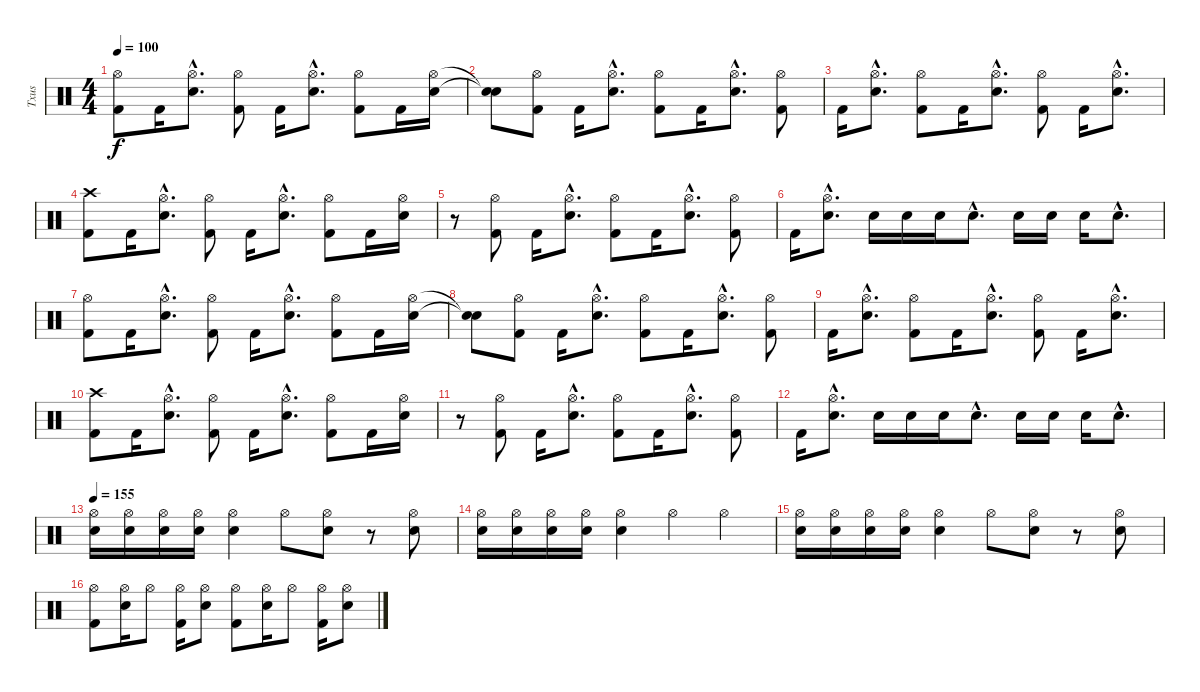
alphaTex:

\track ("Txus" "Txus") {instrument percussion}
\staff {score}
\articulation defaults
\ts (4 4)
\tempo 100
\clef neutral
\ks c
("Kick (hit) 2" "Hi-Hat (open)").8{dy f} "Kick (hit) 2".16 ("Snare (hit) 2"{hac} "Hi-Hat (open)"{hac}).8{d} ("Kick (hit) 2" "Hi-Hat (open)").8 "Kick (hit) 2".16 ("Snare (hit) 2"{hac} "Hi-Hat (open)"{hac}).8{d} ("Kick (hit) 2" "Hi-Hat (open)").8 "Kick (hit) 2".16 ("Snare (hit) 2" "Hi-Hat (open)").16 |
("Snare (hit)"{t} "Snare (hit)"{t}).8 ("Kick (hit) 2" "Hi-Hat (open)").8 "Kick (hit) 2".16 ("Snare (hit) 2"{hac} "Hi-Hat (open)"{hac}).8{d} ("Kick (hit) 2" "Hi-Hat (open)").8 "Kick (hit) 2".16 ("Snare (hit) 2"{hac} "Hi-Hat (open)"{hac}).8{d} ("Kick (hit) 2" "Hi-Hat (open)").8 |
"Kick (hit) 2".16 ("Snare (hit) 2"{hac} "Hi-Hat (open)"{hac}).8{d} ("Kick (hit) 2" "Hi-Hat (open)").8 "Kick (hit) 2".16 ("Snare (hit) 2"{hac} "Hi-Hat (open)"{hac}).8{d} ("Kick (hit) 2" "Hi-Hat (open)").8 "Kick (hit) 2".16 ("Snare (hit) 2"{hac} "Hi-Hat (open)"{hac}).8{d} |
("Kick (hit) 2" "Crash high (hit)").8 "Kick (hit) 2".16 ("Snare (hit) 2"{hac} "Hi-Hat (open)"{hac}).8{d} ("Kick (hit) 2" "Hi-Hat (open)").8 "Kick (hit) 2".16 ("Snare (hit) 2"{hac} "Hi-Hat (open)"{hac}).8{d} ("Kick (hit) 2" "Hi-Hat (open)").8 "Kick (hit) 2".16 ("Snare (hit) 2" "Hi-Hat (open)").16 |
r.8 ("Kick (hit) 2" "Hi-Hat (open)").8 "Kick (hit) 2".16 ("Snare (hit) 2"{hac} "Hi-Hat (open)"{hac}).8{d} ("Kick (hit) 2" "Hi-Hat (open)").8 "Kick (hit) 2".16 ("Snare (hit) 2"{hac} "Hi-Hat (open)"{hac}).8{d} ("Kick (hit) 2" "Hi-Hat (open)").8 |
"Kick (hit) 2".16 ("Snare (hit) 2"{hac} "Hi-Hat (open)"{hac}).8{d} "Snare (hit) 2".16 "Snare (hit) 2".16 "Snare (hit) 2".16 "Snare (hit) 2"{hac}.8{d} "Snare (hit) 2".16 "Snare (hit) 2".16 "Snare (hit) 2".16 "Snare (hit) 2"{hac}.8{d} |
("Kick (hit) 2" "Hi-Hat (open)").8 "Kick (hit) 2".16 ("Snare (hit) 2"{hac} "Hi-Hat (open)"{hac}).8{d} ("Kick (hit) 2" "Hi-Hat (open)").8 "Kick (hit) 2".16 ("Snare (hit) 2"{hac} "Hi-Hat (open)"{hac}).8{d} ("Kick (hit) 2" "Hi-Hat (open)").8 "Kick (hit) 2".16 ("Snare (hit) 2" "Hi-Hat (open)").16 |
("Snare (hit)"{t} "Snare (hit)"{t}).8 ("Kick (hit) 2" "Hi-Hat (open)").8 "Kick (hit) 2".16 ("Snare (hit) 2"{hac} "Hi-Hat (open)"{hac}).8{d} ("Kick (hit) 2" "Hi-Hat (open)").8 "Kick (hit) 2".16 ("Snare (hit) 2"{hac} "Hi-Hat (open)"{hac}).8{d} ("Kick (hit) 2" "Hi-Hat (open)").8 |
"Kick (hit) 2".16 ("Snare (hit) 2"{hac} "Hi-Hat (open)"{hac}).8{d} ("Kick (hit) 2" "Hi-Hat (open)").8 "Kick (hit) 2".16 ("Snare (hit) 2"{hac} "Hi-Hat (open)"{hac}).8{d} ("Kick (hit) 2" "Hi-Hat (open)").8 "Kick (hit) 2".16 ("Snare (hit) 2"{hac} "Hi-Hat (open)"{hac}).8{d} |
("Kick (hit) 2" "Crash high (hit)").8 "Kick (hit) 2".16 ("Snare (hit) 2"{hac} "Hi-Hat (open)"{hac}).8{d} ("Kick (hit) 2" "Hi-Hat (open)").8 "Kick (hit) 2".16 ("Snare (hit) 2"{hac} "Hi-Hat (open)"{hac}).8{d} ("Kick (hit) 2" "Hi-Hat (open)").8 "Kick (hit) 2".16 ("Snare (hit) 2" "Hi-Hat (open)").16 |
r.8 ("Kick (hit) 2" "Hi-Hat (open)").8 "Kick (hit) 2".16 ("Snare (hit) 2"{hac} "Hi-Hat (open)"{hac}).8{d} ("Kick (hit) 2" "Hi-Hat (open)").8 "Kick (hit) 2".16 ("Snare (hit) 2"{hac} "Hi-Hat (open)"{hac}).8{d} ("Kick (hit) 2" "Hi-Hat (open)").8 |
"Kick (hit) 2".16 ("Snare (hit) 2"{hac} "Hi-Hat (open)"{hac}).8{d} "Snare (hit) 2".16 "Snare (hit) 2".16 "Snare (hit) 2".16 "Snare (hit) 2"{hac}.8{d} "Snare (hit) 2".16 "Snare (hit) 2".16 "Snare (hit) 2".16 "Snare (hit) 2"{hac}.8{d} |
\tempo 155
("Snare (hit) 2" "Hi-Hat (open)").16 ("Snare (hit) 2" "Hi-Hat (open)").16 ("Snare (hit) 2" "Hi-Hat (open)").16 ("Snare (hit) 2" "Hi-Hat (open)").16 ("Snare (hit) 2" "Hi-Hat (open)").4 "Hi-Hat (open)".8 ("Snare (hit) 2" "Hi-Hat (open)").8 r.8 ("Snare (hit) 2" "Hi-Hat (open)").8 |
("Snare (hit) 2" "Hi-Hat (open)").16 ("Snare (hit) 2" "Hi-Hat (open)").16 ("Snare (hit) 2" "Hi-Hat (open)").16 ("Snare (hit) 2" "Hi-Hat (open)").16 ("Snare (hit) 2" "Hi-Hat (open)").4 "Hi-Hat (open)".4 "Hi-Hat (open)".4 |
("Snare (hit) 2" "Hi-Hat (open)").16 ("Snare (hit) 2" "Hi-Hat (open)").16 ("Snare (hit) 2" "Hi-Hat (open)").16 ("Snare (hit) 2" "Hi-Hat (open)").16 ("Snare (hit) 2" "Hi-Hat (open)").4 "Hi-Hat (open)".8 ("Snare (hit) 2" "Hi-Hat (open)").8 r.8 ("Snare (hit) 2" "Hi-Hat (open)").8 |
("Kick (hit) 2" "Hi-Hat (open)").8 ("Snare (hit) 2" "Hi-Hat (open)").16 "Hi-Hat (open)".8 ("Kick (hit) 2" "Hi-Hat (open)").16 ("Snare (hit) 2" "Hi-Hat (open)").8 ("Kick (hit) 2" "Hi-Hat (open)").8 ("Snare (hit) 2" "Hi-Hat (open)").16 "Hi-Hat (open)".8 ("Kick (hit) 2" "Hi-Hat (open)").16 ("Snare (hit) 2" "Hi-Hat (open)").8
